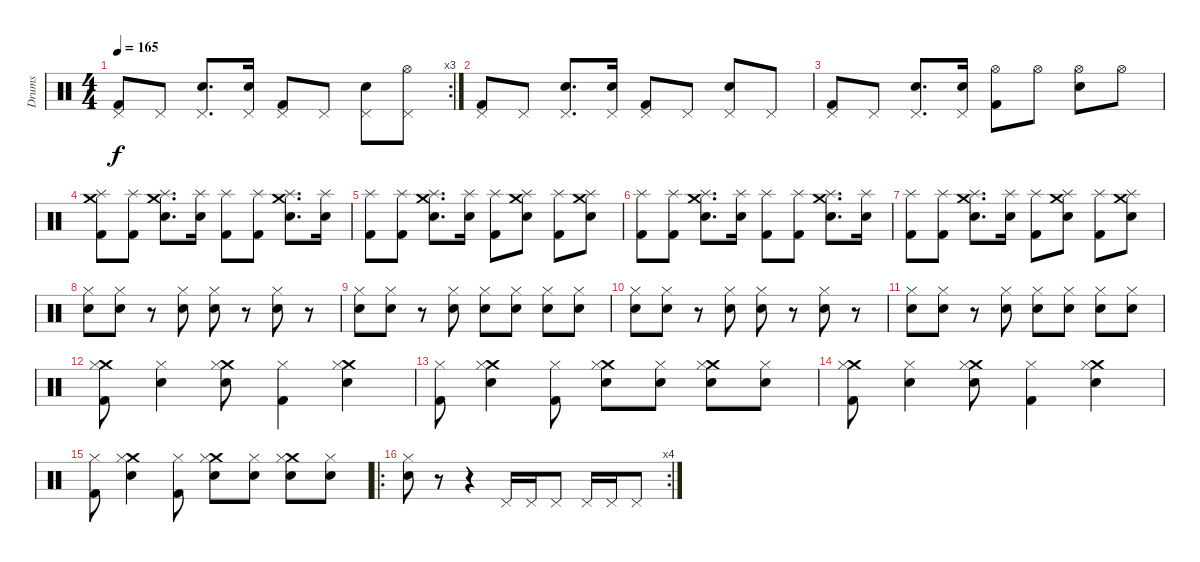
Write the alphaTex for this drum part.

\track ("Drums" "Drums") {instrument percussion}
\staff {score}
\articulation defaults
\rc 3
\ts (4 4)
\tempo 165
\clef neutral
\ks c
("Pedal Hi-Hat (hit)" "Kick (hit) 2").8{dy f} "Pedal Hi-Hat (hit)".8 ("Pedal Hi-Hat (hit)" "Snare (hit) 2").8{d} ("Pedal Hi-Hat (hit)" "Electric Snare (hit)").16 ("Pedal Hi-Hat (hit)" "Kick (hit) 2").8 "Pedal Hi-Hat (hit)".8 ("Pedal Hi-Hat (hit)" "Snare (hit) 2").8 ("Pedal Hi-Hat (hit)" "Hi-Hat (open)").8 |
("Pedal Hi-Hat (hit)" "Kick (hit) 2").8 "Pedal Hi-Hat (hit)".8 ("Pedal Hi-Hat (hit)" "Snare (hit) 2").8{d} ("Pedal Hi-Hat (hit)" "Electric Snare (hit)").16 ("Pedal Hi-Hat (hit)" "Kick (hit) 2").8 "Pedal Hi-Hat (hit)".8 ("Pedal Hi-Hat (hit)" "Snare (hit) 2").8 "Pedal Hi-Hat (hit)".8 |
("Pedal Hi-Hat (hit)" "Kick (hit) 2").8 "Pedal Hi-Hat (hit)".8 ("Pedal Hi-Hat (hit)" "Snare (hit) 2").8{d} ("Pedal Hi-Hat (hit)" "Electric Snare (hit)").16 ("Hi-Hat (open)" "Kick (hit) 2").8 "Hi-Hat (open)".8 ("Hi-Hat (open)" "Snare (hit) 2").8 "Hi-Hat (open)".8 |
("Crash medium (hit)" "Splash (hit)" "Kick (hit) 2").8 ("Splash (hit)" "Kick (hit) 2").8 ("Crash medium (hit)" "Splash (hit)" "Snare (hit) 2").8{d} ("Splash (hit)" "Electric Snare (hit)").16 ("Splash (hit)" "Kick (hit) 2").8 ("Splash (hit)" "Kick (hit) 2").8 ("Crash medium (hit)" "Splash (hit)" "Snare (hit) 2").8{d} ("Splash (hit)" "Electric Snare (hit)").16 |
("Splash (hit)" "Kick (hit) 2").8 ("Splash (hit)" "Kick (hit) 2").8 ("Crash medium (hit)" "Splash (hit)" "Snare (hit) 2").8{d} ("Splash (hit)" "Electric Snare (hit)").16 ("Splash (hit)" "Kick (hit) 2").8 ("Crash medium (hit)" "Splash (hit)" "Snare (hit) 2").8 ("Splash (hit)" "Kick (hit) 2").8 ("Crash medium (hit)" "Splash (hit)" "Snare (hit) 2").8 |
("Splash (hit)" "Kick (hit) 2").8 ("Splash (hit)" "Kick (hit) 2").8 ("Crash medium (hit)" "Splash (hit)" "Snare (hit) 2").8{d} ("Splash (hit)" "Electric Snare (hit)").16 ("Splash (hit)" "Kick (hit) 2").8 ("Splash (hit)" "Kick (hit) 2").8 ("Crash medium (hit)" "Splash (hit)" "Snare (hit) 2").8{d} ("Splash (hit)" "Electric Snare (hit)").16 |
("Splash (hit)" "Kick (hit) 2").8 ("Splash (hit)" "Kick (hit) 2").8 ("Crash medium (hit)" "Splash (hit)" "Snare (hit) 2").8{d} ("Splash (hit)" "Electric Snare (hit)").16 ("Splash (hit)" "Kick (hit) 2").8 ("Crash medium (hit)" "Splash (hit)" "Snare (hit) 2").8 ("Splash (hit)" "Kick (hit) 2").8 ("Crash medium (hit)" "Splash (hit)" "Snare (hit) 2").8 |
("Hi-Hat (closed)" "Electric Snare (hit)").8 ("Hi-Hat (closed)" "Electric Snare (hit)").8 r.8 ("Hi-Hat (closed)" "Electric Snare (hit)").8 ("Hi-Hat (closed)" "Electric Snare (hit)").8 r.8 ("Hi-Hat (closed)" "Electric Snare (hit)").8 r.8 |
("Hi-Hat (closed)" "Electric Snare (hit)").8 ("Hi-Hat (closed)" "Electric Snare (hit)").8 r.8 ("Hi-Hat (closed)" "Electric Snare (hit)").8 ("Hi-Hat (closed)" "Electric Snare (hit)").8 ("Hi-Hat (closed)" "Electric Snare (hit)").8 ("Hi-Hat (closed)" "Electric Snare (hit)").8 ("Hi-Hat (closed)" "Electric Snare (hit)").8 |
("Hi-Hat (closed)" "Electric Snare (hit)").8 ("Hi-Hat (closed)" "Electric Snare (hit)").8 r.8 ("Hi-Hat (closed)" "Electric Snare (hit)").8 ("Hi-Hat (closed)" "Electric Snare (hit)").8 r.8 ("Hi-Hat (closed)" "Electric Snare (hit)").8 r.8 |
("Hi-Hat (closed)" "Electric Snare (hit)").8 ("Hi-Hat (closed)" "Electric Snare (hit)").8 r.8 ("Hi-Hat (closed)" "Electric Snare (hit)").8 ("Hi-Hat (closed)" "Electric Snare (hit)").8 ("Hi-Hat (closed)" "Electric Snare (hit)").8 ("Hi-Hat (closed)" "Electric Snare (hit)").8 ("Hi-Hat (closed)" "Electric Snare (hit)").8 |
("Crash medium (hit)" "Hi-Hat (closed)" "Kick (hit) 2").8 ("Hi-Hat (closed)" "Electric Snare (hit)").4 ("Crash medium (hit)" "Hi-Hat (closed)" "Electric Snare (hit)").8 ("Hi-Hat (closed)" "Kick (hit) 2").4 ("Crash medium (hit)" "Hi-Hat (closed)" "Electric Snare (hit)").4 |
("Hi-Hat (closed)" "Kick (hit) 2").8 ("Crash medium (hit)" "Hi-Hat (closed)" "Electric Snare (hit)").4 ("Hi-Hat (closed)" "Kick (hit) 2").8 ("Crash medium (hit)" "Hi-Hat (closed)" "Electric Snare (hit)").8 ("Hi-Hat (closed)" "Electric Snare (hit)").8 ("Crash medium (hit)" "Hi-Hat (closed)" "Electric Snare (hit)").8 ("Hi-Hat (closed)" "Electric Snare (hit)").8 |
("Crash medium (hit)" "Hi-Hat (closed)" "Kick (hit) 2").8 ("Hi-Hat (closed)" "Electric Snare (hit)").4 ("Crash medium (hit)" "Hi-Hat (closed)" "Electric Snare (hit)").8 ("Hi-Hat (closed)" "Kick (hit) 2").4 ("Crash medium (hit)" "Hi-Hat (closed)" "Electric Snare (hit)").4 |
("Hi-Hat (closed)" "Kick (hit) 2").8 ("Crash medium (hit)" "Hi-Hat (closed)" "Electric Snare (hit)").4 ("Hi-Hat (closed)" "Kick (hit) 2").8 ("Crash medium (hit)" "Hi-Hat (closed)" "Electric Snare (hit)").8 ("Hi-Hat (closed)" "Electric Snare (hit)").8 ("Crash medium (hit)" "Hi-Hat (closed)" "Electric Snare (hit)").8 ("Hi-Hat (closed)" "Electric Snare (hit)").8 |
\ro
\rc 4
("Hi-Hat (closed)" "Electric Snare (hit)").8 r.8 r.4 "Pedal Hi-Hat (hit)".16 "Pedal Hi-Hat (hit)".16 "Pedal Hi-Hat (hit)".8 "Pedal Hi-Hat (hit)".16 "Pedal Hi-Hat (hit)".16 "Pedal Hi-Hat (hit)".8
